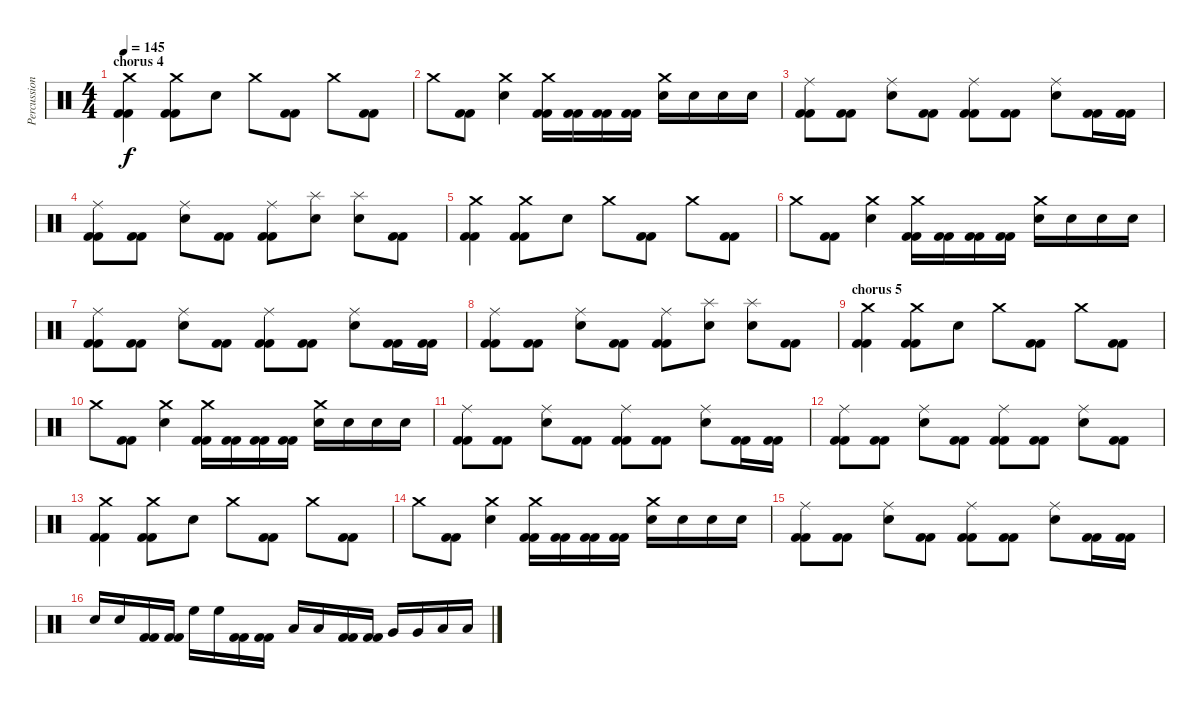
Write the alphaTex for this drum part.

\track ("Percussion" "Percussion") {instrument percussion}
\staff {score}
\articulation defaults
\ts (4 4)
\section ("" "chorus 4")
\tempo 145
\clef neutral
\ks c
("Crash medium (hit)" "Kick (hit) 2" "Kick (hit) 2").4{dy f} ("Crash medium (hit)" "Kick (hit) 2" "Kick (hit) 2").8 "Electric Snare (hit)".8 "Crash medium (hit)".8 ("Kick (hit) 2" "Kick (hit) 2").8 "Crash medium (hit)".8 ("Kick (hit) 2" "Kick (hit) 2").8 |
"Crash medium (hit)".8 ("Kick (hit) 2" "Kick (hit) 2").8 ("Crash medium (hit)" "Electric Snare (hit)").4 ("Crash medium (hit)" "Kick (hit) 2" "Kick (hit) 2").16 ("Kick (hit) 2" "Kick (hit) 2").16 ("Kick (hit) 2" "Kick (hit) 2").16 ("Kick (hit) 2" "Kick (hit) 2").16 ("Crash medium (hit)" "Electric Snare (hit)").16 "Electric Snare (hit)".16 "Electric Snare (hit)".16 "Electric Snare (hit)".16 |
("Ride (middle)" "Kick (hit) 2" "Kick (hit) 2").8 ("Kick (hit) 2" "Kick (hit) 2").8 ("Ride (middle)" "Electric Snare (hit)").8 ("Kick (hit) 2" "Kick (hit) 2").8 ("Ride (middle)" "Kick (hit) 2" "Kick (hit) 2").8 ("Kick (hit) 2" "Kick (hit) 2").8 ("Ride (middle)" "Electric Snare (hit)").8 ("Kick (hit) 2" "Kick (hit) 2").16 ("Kick (hit) 2" "Kick (hit) 2").16 |
("Ride (middle)" "Kick (hit) 2" "Kick (hit) 2").8 ("Kick (hit) 2" "Kick (hit) 2").8 ("Ride (middle)" "Electric Snare (hit)").8 ("Kick (hit) 2" "Kick (hit) 2").8 ("Ride (middle)" "Kick (hit) 2" "Kick (hit) 2").8 ("Splash (hit)" "Electric Snare (hit)").8 ("Splash (hit)" "Electric Snare (hit)").8 ("Kick (hit) 2" "Kick (hit) 2").8 |
("Crash medium (hit)" "Kick (hit) 2" "Kick (hit) 2").4 ("Crash medium (hit)" "Kick (hit) 2" "Kick (hit) 2").8 "Electric Snare (hit)".8 "Crash medium (hit)".8 ("Kick (hit) 2" "Kick (hit) 2").8 "Crash medium (hit)".8 ("Kick (hit) 2" "Kick (hit) 2").8 |
"Crash medium (hit)".8 ("Kick (hit) 2" "Kick (hit) 2").8 ("Crash medium (hit)" "Electric Snare (hit)").4 ("Crash medium (hit)" "Kick (hit) 2" "Kick (hit) 2").16 ("Kick (hit) 2" "Kick (hit) 2").16 ("Kick (hit) 2" "Kick (hit) 2").16 ("Kick (hit) 2" "Kick (hit) 2").16 ("Crash medium (hit)" "Electric Snare (hit)").16 "Electric Snare (hit)".16 "Electric Snare (hit)".16 "Electric Snare (hit)".16 |
("Ride (middle)" "Kick (hit) 2" "Kick (hit) 2").8 ("Kick (hit) 2" "Kick (hit) 2").8 ("Ride (middle)" "Electric Snare (hit)").8 ("Kick (hit) 2" "Kick (hit) 2").8 ("Ride (middle)" "Kick (hit) 2" "Kick (hit) 2").8 ("Kick (hit) 2" "Kick (hit) 2").8 ("Ride (middle)" "Electric Snare (hit)").8 ("Kick (hit) 2" "Kick (hit) 2").16 ("Kick (hit) 2" "Kick (hit) 2").16 |
("Ride (middle)" "Kick (hit) 2" "Kick (hit) 2").8 ("Kick (hit) 2" "Kick (hit) 2").8 ("Ride (middle)" "Electric Snare (hit)").8 ("Kick (hit) 2" "Kick (hit) 2").8 ("Ride (middle)" "Kick (hit) 2" "Kick (hit) 2").8 ("Splash (hit)" "Electric Snare (hit)").8 ("Splash (hit)" "Electric Snare (hit)").8 ("Kick (hit) 2" "Kick (hit) 2").8 |
\section ("" "chorus 5")
("Crash medium (hit)" "Kick (hit) 2" "Kick (hit) 2").4 ("Crash medium (hit)" "Kick (hit) 2" "Kick (hit) 2").8 "Electric Snare (hit)".8 "Crash medium (hit)".8 ("Kick (hit) 2" "Kick (hit) 2").8 "Crash medium (hit)".8 ("Kick (hit) 2" "Kick (hit) 2").8 |
"Crash medium (hit)".8 ("Kick (hit) 2" "Kick (hit) 2").8 ("Crash medium (hit)" "Electric Snare (hit)").4 ("Crash medium (hit)" "Kick (hit) 2" "Kick (hit) 2").16 ("Kick (hit) 2" "Kick (hit) 2").16 ("Kick (hit) 2" "Kick (hit) 2").16 ("Kick (hit) 2" "Kick (hit) 2").16 ("Crash medium (hit)" "Electric Snare (hit)").16 "Electric Snare (hit)".16 "Electric Snare (hit)".16 "Electric Snare (hit)".16 |
("Ride (middle)" "Kick (hit) 2" "Kick (hit) 2").8 ("Kick (hit) 2" "Kick (hit) 2").8 ("Ride (middle)" "Electric Snare (hit)").8 ("Kick (hit) 2" "Kick (hit) 2").8 ("Ride (middle)" "Kick (hit) 2" "Kick (hit) 2").8 ("Kick (hit) 2" "Kick (hit) 2").8 ("Ride (middle)" "Electric Snare (hit)").8 ("Kick (hit) 2" "Kick (hit) 2").16 ("Kick (hit) 2" "Kick (hit) 2").16 |
("Ride (middle)" "Kick (hit) 2" "Kick (hit) 2").8 ("Kick (hit) 2" "Kick (hit) 2").8 ("Ride (middle)" "Electric Snare (hit)").8 ("Kick (hit) 2" "Kick (hit) 2").8 ("Ride (middle)" "Kick (hit) 2" "Kick (hit) 2").8 ("Kick (hit) 2" "Kick (hit) 2").8 ("Ride (middle)" "Electric Snare (hit)").8 ("Kick (hit) 2" "Kick (hit) 2").8 |
("Crash medium (hit)" "Kick (hit) 2" "Kick (hit) 2").4 ("Crash medium (hit)" "Kick (hit) 2" "Kick (hit) 2").8 "Electric Snare (hit)".8 "Crash medium (hit)".8 ("Kick (hit) 2" "Kick (hit) 2").8 "Crash medium (hit)".8 ("Kick (hit) 2" "Kick (hit) 2").8 |
"Crash medium (hit)".8 ("Kick (hit) 2" "Kick (hit) 2").8 ("Crash medium (hit)" "Electric Snare (hit)").4 ("Crash medium (hit)" "Kick (hit) 2" "Kick (hit) 2").16 ("Kick (hit) 2" "Kick (hit) 2").16 ("Kick (hit) 2" "Kick (hit) 2").16 ("Kick (hit) 2" "Kick (hit) 2").16 ("Crash medium (hit)" "Electric Snare (hit)").16 "Electric Snare (hit)".16 "Electric Snare (hit)".16 "Electric Snare (hit)".16 |
("Ride (middle)" "Kick (hit) 2" "Kick (hit) 2").8 ("Kick (hit) 2" "Kick (hit) 2").8 ("Ride (middle)" "Electric Snare (hit)").8 ("Kick (hit) 2" "Kick (hit) 2").8 ("Ride (middle)" "Kick (hit) 2" "Kick (hit) 2").8 ("Kick (hit) 2" "Kick (hit) 2").8 ("Ride (middle)" "Electric Snare (hit)").8 ("Kick (hit) 2" "Kick (hit) 2").16 ("Kick (hit) 2" "Kick (hit) 2").16 |
"Electric Snare (hit)".16 "Electric Snare (hit)".16 ("Kick (hit) 2" "Kick (hit) 2").16 ("Kick (hit) 2" "Kick (hit) 2").16 "High Floor Tom (hit)".16 "High Floor Tom (hit)".16 ("Kick (hit) 2" "Kick (hit) 2").16 ("Kick (hit) 2" "Kick (hit) 2").16 "Low Tom (hit)".16 "Low Tom (hit)".16 ("Kick (hit) 2" "Kick (hit) 2").16 ("Kick (hit) 2" "Kick (hit) 2").16 "Very Low Tom (hit)".16 "Very Low Tom (hit)".16 "Low Floor Tom (hit)".16 "Low Floor Tom (hit)".16
